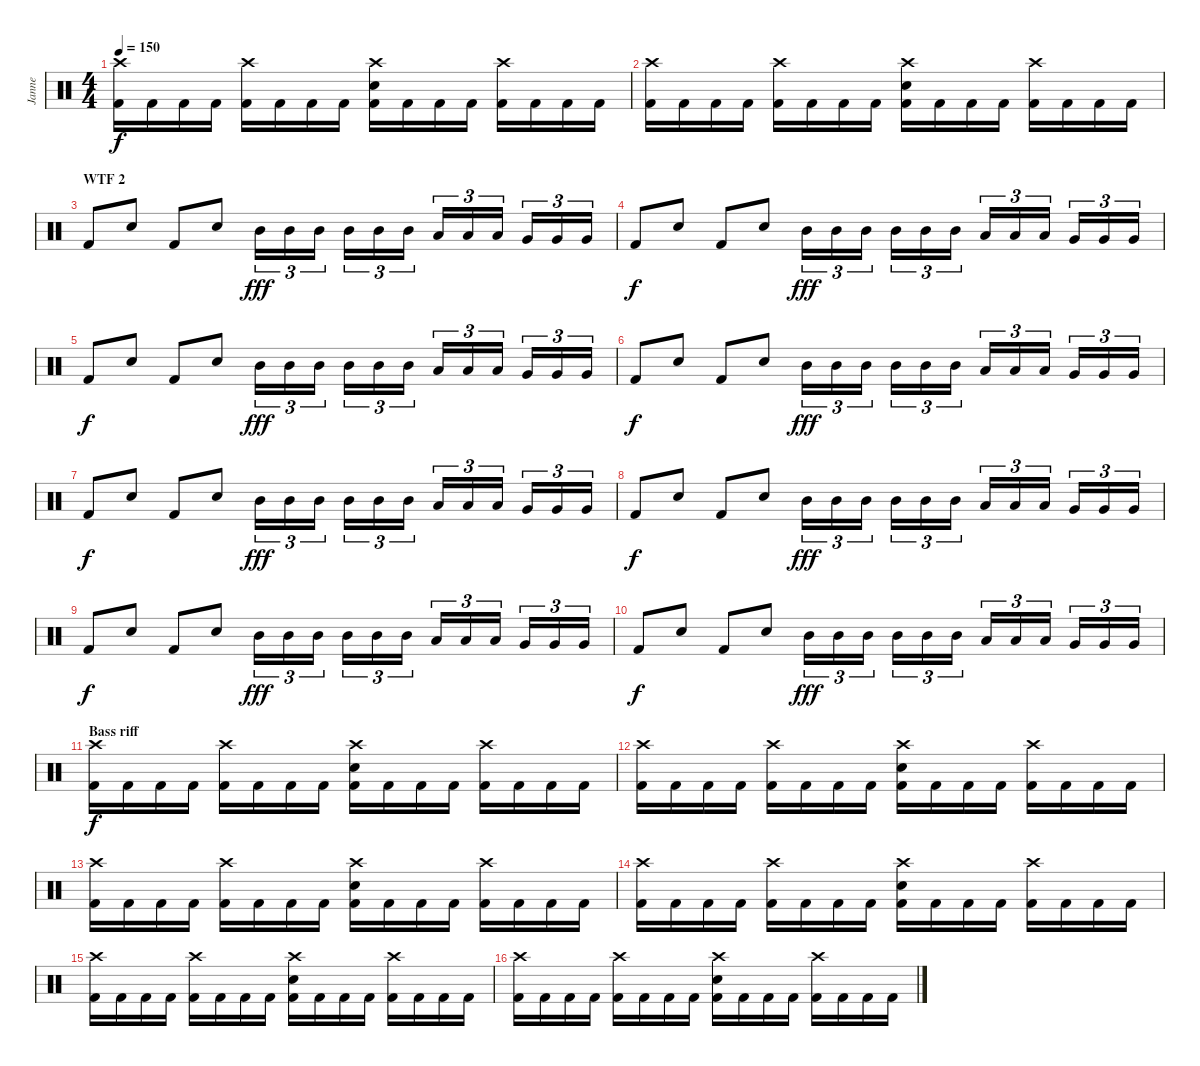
\track ("Janne" "Janne") {instrument percussion}
\staff {score}
\articulation defaults
\ts (4 4)
\tempo 150
\clef neutral
\ks c
("Crash high (hit)" "Kick (hit) 2").16{dy f} "Kick (hit) 2".16 "Kick (hit) 2".16 "Kick (hit) 2".16 ("Crash high (hit)" "Kick (hit) 2").16 "Kick (hit) 2".16 "Kick (hit) 2".16 "Kick (hit) 2".16 ("Crash high (hit)" "Electric Snare (hit)" "Kick (hit) 2").16 "Kick (hit) 2".16 "Kick (hit) 2".16 "Kick (hit) 2".16 ("Crash high (hit)" "Kick (hit) 2").16 "Kick (hit) 2".16 "Kick (hit) 2".16 "Kick (hit) 2".16 |
("Crash high (hit)" "Kick (hit) 2").16 "Kick (hit) 2".16 "Kick (hit) 2".16 "Kick (hit) 2".16 ("Crash high (hit)" "Kick (hit) 2").16 "Kick (hit) 2".16 "Kick (hit) 2".16 "Kick (hit) 2".16 ("Crash high (hit)" "Electric Snare (hit)" "Kick (hit) 2").16 "Kick (hit) 2".16 "Kick (hit) 2".16 "Kick (hit) 2".16 ("Crash high (hit)" "Kick (hit) 2").16 "Kick (hit) 2".16 "Kick (hit) 2".16 "Kick (hit) 2".16 |
\section ("" "WTF 2")
"Kick (hit) 2".8 "Electric Snare (hit)".8 "Kick (hit) 2".8 "Electric Snare (hit)".8 "Mid Tom (hit)".16{tu (3 2) dy fff} "Mid Tom (hit)".16{tu (3 2)} "Mid Tom (hit)".16{tu (3 2)} "Mid Tom (hit)".16{tu (3 2)} "Mid Tom (hit)".16{tu (3 2)} "Mid Tom (hit)".16{tu (3 2)} "Low Tom (hit)".16{tu (3 2)} "Low Tom (hit)".16{tu (3 2)} "Low Tom (hit)".16{tu (3 2)} "Very Low Tom (hit)".16{tu (3 2)} "Very Low Tom (hit)".16{tu (3 2)} "Very Low Tom (hit)".16{tu (3 2)} |
"Kick (hit) 2".8{dy f} "Electric Snare (hit)".8 "Kick (hit) 2".8 "Electric Snare (hit)".8 "Mid Tom (hit)".16{tu (3 2) dy fff} "Mid Tom (hit)".16{tu (3 2)} "Mid Tom (hit)".16{tu (3 2)} "Mid Tom (hit)".16{tu (3 2)} "Mid Tom (hit)".16{tu (3 2)} "Mid Tom (hit)".16{tu (3 2)} "Low Tom (hit)".16{tu (3 2)} "Low Tom (hit)".16{tu (3 2)} "Low Tom (hit)".16{tu (3 2)} "Very Low Tom (hit)".16{tu (3 2)} "Very Low Tom (hit)".16{tu (3 2)} "Very Low Tom (hit)".16{tu (3 2)} |
"Kick (hit) 2".8{dy f} "Electric Snare (hit)".8 "Kick (hit) 2".8 "Electric Snare (hit)".8 "Mid Tom (hit)".16{tu (3 2) dy fff} "Mid Tom (hit)".16{tu (3 2)} "Mid Tom (hit)".16{tu (3 2)} "Mid Tom (hit)".16{tu (3 2)} "Mid Tom (hit)".16{tu (3 2)} "Mid Tom (hit)".16{tu (3 2)} "Low Tom (hit)".16{tu (3 2)} "Low Tom (hit)".16{tu (3 2)} "Low Tom (hit)".16{tu (3 2)} "Very Low Tom (hit)".16{tu (3 2)} "Very Low Tom (hit)".16{tu (3 2)} "Very Low Tom (hit)".16{tu (3 2)} |
"Kick (hit) 2".8{dy f} "Electric Snare (hit)".8 "Kick (hit) 2".8 "Electric Snare (hit)".8 "Mid Tom (hit)".16{tu (3 2) dy fff} "Mid Tom (hit)".16{tu (3 2)} "Mid Tom (hit)".16{tu (3 2)} "Mid Tom (hit)".16{tu (3 2)} "Mid Tom (hit)".16{tu (3 2)} "Mid Tom (hit)".16{tu (3 2)} "Low Tom (hit)".16{tu (3 2)} "Low Tom (hit)".16{tu (3 2)} "Low Tom (hit)".16{tu (3 2)} "Very Low Tom (hit)".16{tu (3 2)} "Very Low Tom (hit)".16{tu (3 2)} "Very Low Tom (hit)".16{tu (3 2)} |
"Kick (hit) 2".8{dy f} "Electric Snare (hit)".8 "Kick (hit) 2".8 "Electric Snare (hit)".8 "Mid Tom (hit)".16{tu (3 2) dy fff} "Mid Tom (hit)".16{tu (3 2)} "Mid Tom (hit)".16{tu (3 2)} "Mid Tom (hit)".16{tu (3 2)} "Mid Tom (hit)".16{tu (3 2)} "Mid Tom (hit)".16{tu (3 2)} "Low Tom (hit)".16{tu (3 2)} "Low Tom (hit)".16{tu (3 2)} "Low Tom (hit)".16{tu (3 2)} "Very Low Tom (hit)".16{tu (3 2)} "Very Low Tom (hit)".16{tu (3 2)} "Very Low Tom (hit)".16{tu (3 2)} |
"Kick (hit) 2".8{dy f} "Electric Snare (hit)".8 "Kick (hit) 2".8 "Electric Snare (hit)".8 "Mid Tom (hit)".16{tu (3 2) dy fff} "Mid Tom (hit)".16{tu (3 2)} "Mid Tom (hit)".16{tu (3 2)} "Mid Tom (hit)".16{tu (3 2)} "Mid Tom (hit)".16{tu (3 2)} "Mid Tom (hit)".16{tu (3 2)} "Low Tom (hit)".16{tu (3 2)} "Low Tom (hit)".16{tu (3 2)} "Low Tom (hit)".16{tu (3 2)} "Very Low Tom (hit)".16{tu (3 2)} "Very Low Tom (hit)".16{tu (3 2)} "Very Low Tom (hit)".16{tu (3 2)} |
"Kick (hit) 2".8{dy f} "Electric Snare (hit)".8 "Kick (hit) 2".8 "Electric Snare (hit)".8 "Mid Tom (hit)".16{tu (3 2) dy fff} "Mid Tom (hit)".16{tu (3 2)} "Mid Tom (hit)".16{tu (3 2)} "Mid Tom (hit)".16{tu (3 2)} "Mid Tom (hit)".16{tu (3 2)} "Mid Tom (hit)".16{tu (3 2)} "Low Tom (hit)".16{tu (3 2)} "Low Tom (hit)".16{tu (3 2)} "Low Tom (hit)".16{tu (3 2)} "Very Low Tom (hit)".16{tu (3 2)} "Very Low Tom (hit)".16{tu (3 2)} "Very Low Tom (hit)".16{tu (3 2)} |
"Kick (hit) 2".8{dy f} "Electric Snare (hit)".8 "Kick (hit) 2".8 "Electric Snare (hit)".8 "Mid Tom (hit)".16{tu (3 2) dy fff} "Mid Tom (hit)".16{tu (3 2)} "Mid Tom (hit)".16{tu (3 2)} "Mid Tom (hit)".16{tu (3 2)} "Mid Tom (hit)".16{tu (3 2)} "Mid Tom (hit)".16{tu (3 2)} "Low Tom (hit)".16{tu (3 2)} "Low Tom (hit)".16{tu (3 2)} "Low Tom (hit)".16{tu (3 2)} "Very Low Tom (hit)".16{tu (3 2)} "Very Low Tom (hit)".16{tu (3 2)} "Very Low Tom (hit)".16{tu (3 2)} |
\section ("" "Bass riff")
("Crash high (hit)" "Kick (hit) 2").16{dy f} "Kick (hit) 2".16 "Kick (hit) 2".16 "Kick (hit) 2".16 ("Crash high (hit)" "Kick (hit) 2").16 "Kick (hit) 2".16 "Kick (hit) 2".16 "Kick (hit) 2".16 ("Crash high (hit)" "Electric Snare (hit)" "Kick (hit) 2").16 "Kick (hit) 2".16 "Kick (hit) 2".16 "Kick (hit) 2".16 ("Crash high (hit)" "Kick (hit) 2").16 "Kick (hit) 2".16 "Kick (hit) 2".16 "Kick (hit) 2".16 |
("Crash high (hit)" "Kick (hit) 2").16 "Kick (hit) 2".16 "Kick (hit) 2".16 "Kick (hit) 2".16 ("Crash high (hit)" "Kick (hit) 2").16 "Kick (hit) 2".16 "Kick (hit) 2".16 "Kick (hit) 2".16 ("Crash high (hit)" "Electric Snare (hit)" "Kick (hit) 2").16 "Kick (hit) 2".16 "Kick (hit) 2".16 "Kick (hit) 2".16 ("Crash high (hit)" "Kick (hit) 2").16 "Kick (hit) 2".16 "Kick (hit) 2".16 "Kick (hit) 2".16 |
("Crash high (hit)" "Kick (hit) 2").16 "Kick (hit) 2".16 "Kick (hit) 2".16 "Kick (hit) 2".16 ("Crash high (hit)" "Kick (hit) 2").16 "Kick (hit) 2".16 "Kick (hit) 2".16 "Kick (hit) 2".16 ("Crash high (hit)" "Electric Snare (hit)" "Kick (hit) 2").16 "Kick (hit) 2".16 "Kick (hit) 2".16 "Kick (hit) 2".16 ("Crash high (hit)" "Kick (hit) 2").16 "Kick (hit) 2".16 "Kick (hit) 2".16 "Kick (hit) 2".16 |
("Crash high (hit)" "Kick (hit) 2").16 "Kick (hit) 2".16 "Kick (hit) 2".16 "Kick (hit) 2".16 ("Crash high (hit)" "Kick (hit) 2").16 "Kick (hit) 2".16 "Kick (hit) 2".16 "Kick (hit) 2".16 ("Crash high (hit)" "Electric Snare (hit)" "Kick (hit) 2").16 "Kick (hit) 2".16 "Kick (hit) 2".16 "Kick (hit) 2".16 ("Crash high (hit)" "Kick (hit) 2").16 "Kick (hit) 2".16 "Kick (hit) 2".16 "Kick (hit) 2".16 |
("Crash high (hit)" "Kick (hit) 2").16 "Kick (hit) 2".16 "Kick (hit) 2".16 "Kick (hit) 2".16 ("Crash high (hit)" "Kick (hit) 2").16 "Kick (hit) 2".16 "Kick (hit) 2".16 "Kick (hit) 2".16 ("Crash high (hit)" "Electric Snare (hit)" "Kick (hit) 2").16 "Kick (hit) 2".16 "Kick (hit) 2".16 "Kick (hit) 2".16 ("Crash high (hit)" "Kick (hit) 2").16 "Kick (hit) 2".16 "Kick (hit) 2".16 "Kick (hit) 2".16 |
("Crash high (hit)" "Kick (hit) 2").16 "Kick (hit) 2".16 "Kick (hit) 2".16 "Kick (hit) 2".16 ("Crash high (hit)" "Kick (hit) 2").16 "Kick (hit) 2".16 "Kick (hit) 2".16 "Kick (hit) 2".16 ("Crash high (hit)" "Electric Snare (hit)" "Kick (hit) 2").16 "Kick (hit) 2".16 "Kick (hit) 2".16 "Kick (hit) 2".16 ("Crash high (hit)" "Kick (hit) 2").16 "Kick (hit) 2".16 "Kick (hit) 2".16 "Kick (hit) 2".16
